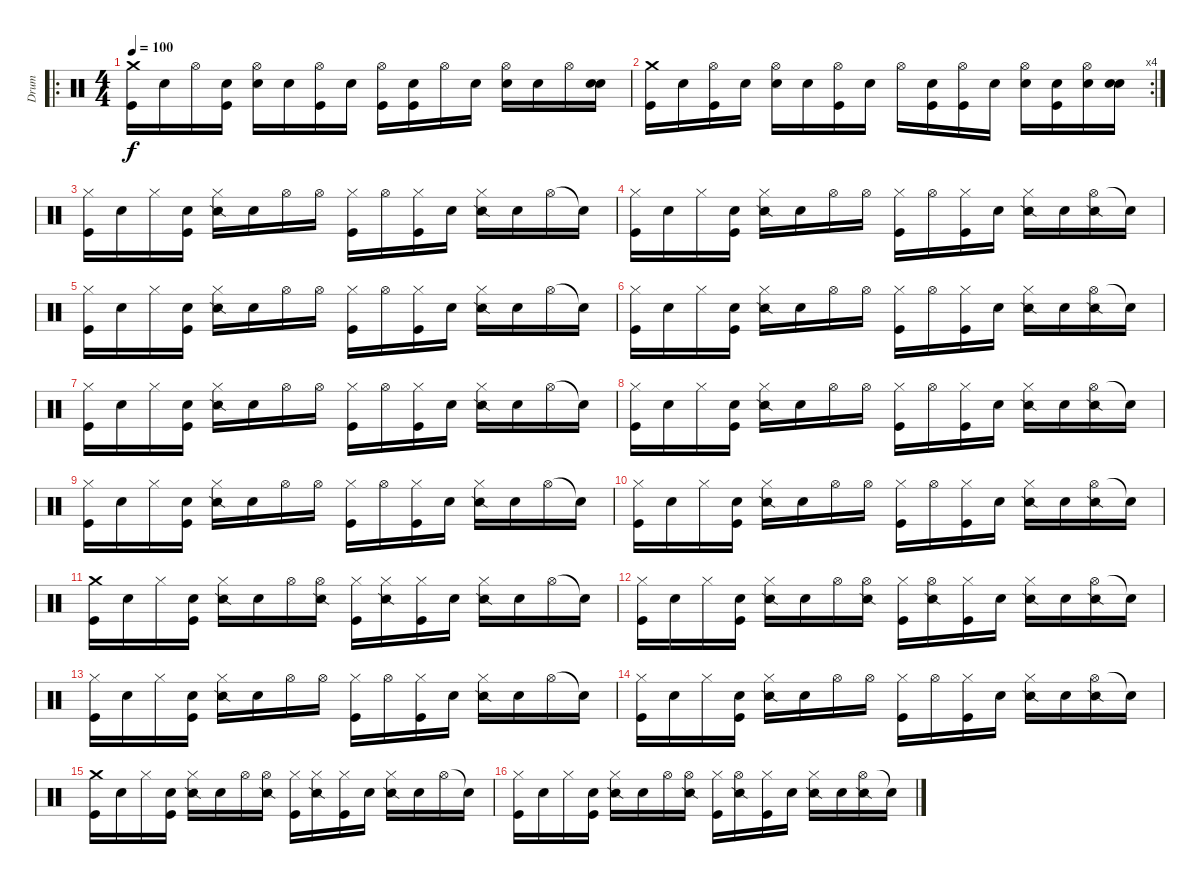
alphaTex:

\track ("Drum" "Drum") {instrument percussion}
\staff {score}
\articulation defaults
\ro
\ts (4 4)
\tempo 100
\clef neutral
\ks c
("Crash medium (hit)" "Kick (hit)").16{dy f} "Snare (hit)".16 "Hi-Hat (open)".16 ("Snare (hit)" "Kick (hit)").16 ("Hi-Hat (open)" "Snare (hit) 2").16 "Snare (hit)".16 ("Hi-Hat (open)" "Kick (hit)").16 "Snare (hit)".16 ("Hi-Hat (open)" "Kick (hit)").16 ("Snare (hit)" "Kick (hit)").16 "Hi-Hat (open)".16 "Snare (hit)".16 ("Hi-Hat (open)" "Snare (hit) 2").16 "Snare (hit)".16 "Hi-Hat (open)".16 ("Snare (hit)" "Snare (hit) 2").16 |
\rc 4
("Crash medium (hit)" "Kick (hit)").16 "Snare (hit)".16 ("Hi-Hat (open)" "Kick (hit)").16 "Snare (hit)".16 ("Hi-Hat (open)" "Snare (hit) 2").16 "Snare (hit)".16 ("Hi-Hat (open)" "Kick (hit)").16 "Snare (hit)".16 "Hi-Hat (open)".16 ("Snare (hit)" "Kick (hit)").16 ("Hi-Hat (open)" "Kick (hit)").16 "Snare (hit)".16 ("Hi-Hat (open)" "Snare (hit) 2").16 ("Snare (hit)" "Kick (hit)").16 ("Hi-Hat (open)" "Snare (hit) 2").16 ("Snare (hit)" "Snare (hit) 2").16 |
("Hi-Hat (closed)" "Kick (hit)").16 "Snare (hit)".16 "Hi-Hat (closed)".16 ("Snare (hit)" "Kick (hit)").16 ("Hi-Hat (closed)" "Snare (side stick) 2").16 "Snare (hit)".16 "Hi-Hat (open)".16 "Hi-Hat (open)".16 ("Hi-Hat (closed)" "Kick (hit)").16 "Hi-Hat (open)".16 ("Hi-Hat (closed)" "Kick (hit)").16 "Snare (hit)".16 ("Hi-Hat (closed)" "Snare (side stick) 2").16 "Snare (hit)".16 "Hi-Hat (open)".16 "Snare (hit)"{t}.16 |
("Hi-Hat (closed)" "Kick (hit)").16 "Snare (hit)".16 "Hi-Hat (closed)".16 ("Snare (hit)" "Kick (hit)").16 ("Hi-Hat (closed)" "Snare (side stick) 2").16 "Snare (hit)".16 "Hi-Hat (open)".16 "Hi-Hat (open)".16 ("Hi-Hat (closed)" "Kick (hit)").16 "Hi-Hat (open)".16 ("Hi-Hat (closed)" "Kick (hit)").16 "Snare (hit)".16 ("Hi-Hat (closed)" "Snare (side stick) 2").16 "Snare (hit)".16 ("Hi-Hat (open)" "Snare (side stick) 2").16 "Snare (hit)"{t}.16 |
("Hi-Hat (closed)" "Kick (hit)").16 "Snare (hit)".16 "Hi-Hat (closed)".16 ("Snare (hit)" "Kick (hit)").16 ("Hi-Hat (closed)" "Snare (side stick) 2").16 "Snare (hit)".16 "Hi-Hat (open)".16 "Hi-Hat (open)".16 ("Hi-Hat (closed)" "Kick (hit)").16 "Hi-Hat (open)".16 ("Hi-Hat (closed)" "Kick (hit)").16 "Snare (hit)".16 ("Hi-Hat (closed)" "Snare (side stick) 2").16 "Snare (hit)".16 "Hi-Hat (open)".16 "Snare (hit)"{t}.16 |
("Hi-Hat (closed)" "Kick (hit)").16 "Snare (hit)".16 "Hi-Hat (closed)".16 ("Snare (hit)" "Kick (hit)").16 ("Hi-Hat (closed)" "Snare (side stick) 2").16 "Snare (hit)".16 "Hi-Hat (open)".16 "Hi-Hat (open)".16 ("Hi-Hat (closed)" "Kick (hit)").16 "Hi-Hat (open)".16 ("Hi-Hat (closed)" "Kick (hit)").16 "Snare (hit)".16 ("Hi-Hat (closed)" "Snare (side stick) 2").16 "Snare (hit)".16 ("Hi-Hat (open)" "Snare (side stick) 2").16 "Snare (hit)"{t}.16 |
("Hi-Hat (closed)" "Kick (hit)").16 "Snare (hit)".16 "Hi-Hat (closed)".16 ("Snare (hit)" "Kick (hit)").16 ("Hi-Hat (closed)" "Snare (side stick) 2").16 "Snare (hit)".16 "Hi-Hat (open)".16 "Hi-Hat (open)".16 ("Hi-Hat (closed)" "Kick (hit)").16 "Hi-Hat (open)".16 ("Hi-Hat (closed)" "Kick (hit)").16 "Snare (hit)".16 ("Hi-Hat (closed)" "Snare (side stick) 2").16 "Snare (hit)".16 "Hi-Hat (open)".16 "Snare (hit)"{t}.16 |
("Hi-Hat (closed)" "Kick (hit)").16 "Snare (hit)".16 "Hi-Hat (closed)".16 ("Snare (hit)" "Kick (hit)").16 ("Hi-Hat (closed)" "Snare (side stick) 2").16 "Snare (hit)".16 "Hi-Hat (open)".16 "Hi-Hat (open)".16 ("Hi-Hat (closed)" "Kick (hit)").16 "Hi-Hat (open)".16 ("Hi-Hat (closed)" "Kick (hit)").16 "Snare (hit)".16 ("Hi-Hat (closed)" "Snare (side stick) 2").16 "Snare (hit)".16 ("Hi-Hat (open)" "Snare (side stick) 2").16 "Snare (hit)"{t}.16 |
("Hi-Hat (closed)" "Kick (hit)").16 "Snare (hit)".16 "Hi-Hat (closed)".16 ("Snare (hit)" "Kick (hit)").16 ("Hi-Hat (closed)" "Snare (side stick) 2").16 "Snare (hit)".16 "Hi-Hat (open)".16 "Hi-Hat (open)".16 ("Hi-Hat (closed)" "Kick (hit)").16 "Hi-Hat (open)".16 ("Hi-Hat (closed)" "Kick (hit)").16 "Snare (hit)".16 ("Hi-Hat (closed)" "Snare (side stick) 2").16 "Snare (hit)".16 "Hi-Hat (open)".16 "Snare (hit)"{t}.16 |
("Hi-Hat (closed)" "Kick (hit)").16 "Snare (hit)".16 "Hi-Hat (closed)".16 ("Snare (hit)" "Kick (hit)").16 ("Hi-Hat (closed)" "Snare (side stick) 2").16 "Snare (hit)".16 "Hi-Hat (open)".16 "Hi-Hat (open)".16 ("Hi-Hat (closed)" "Kick (hit)").16 "Hi-Hat (open)".16 ("Hi-Hat (closed)" "Kick (hit)").16 "Snare (hit)".16 ("Hi-Hat (closed)" "Snare (side stick) 2").16 "Snare (hit)".16 ("Hi-Hat (open)" "Snare (side stick) 2").16 "Snare (hit)"{t}.16 |
("Crash medium (hit)" "Kick (hit)").16 "Snare (hit)".16 "Hi-Hat (closed)".16 ("Snare (hit)" "Kick (hit)").16 ("Hi-Hat (closed)" "Snare (side stick) 2").16 "Snare (hit)".16 "Hi-Hat (open)".16 ("Hi-Hat (open)" "Snare (side stick) 2").16 ("Hi-Hat (closed)" "Kick (hit)").16 ("Hi-Hat (closed)" "Snare (side stick) 2").16 ("Hi-Hat (closed)" "Kick (hit)").16 "Snare (hit)".16 ("Hi-Hat (closed)" "Snare (side stick) 2").16 "Snare (hit)".16 "Hi-Hat (open)".16 "Snare (hit)"{t}.16 |
("Hi-Hat (closed)" "Kick (hit)").16 "Snare (hit)".16 "Hi-Hat (closed)".16 ("Snare (hit)" "Kick (hit)").16 ("Hi-Hat (closed)" "Snare (side stick) 2").16 "Snare (hit)".16 "Hi-Hat (open)".16 ("Hi-Hat (open)" "Snare (side stick) 2").16 ("Hi-Hat (closed)" "Kick (hit)").16 ("Hi-Hat (open)" "Snare (side stick) 2").16 ("Hi-Hat (closed)" "Kick (hit)").16 "Snare (hit)".16 ("Hi-Hat (closed)" "Snare (side stick) 2").16 "Snare (hit)".16 ("Hi-Hat (open)" "Snare (side stick) 2").16 "Snare (hit)"{t}.16 |
("Hi-Hat (closed)" "Kick (hit)").16 "Snare (hit)".16 "Hi-Hat (closed)".16 ("Snare (hit)" "Kick (hit)").16 ("Hi-Hat (closed)" "Snare (side stick) 2").16 "Snare (hit)".16 "Hi-Hat (open)".16 "Hi-Hat (open)".16 ("Hi-Hat (closed)" "Kick (hit)").16 "Hi-Hat (open)".16 ("Hi-Hat (closed)" "Kick (hit)").16 "Snare (hit)".16 ("Hi-Hat (closed)" "Snare (side stick) 2").16 "Snare (hit)".16 "Hi-Hat (open)".16 "Snare (hit)"{t}.16 |
("Hi-Hat (closed)" "Kick (hit)").16 "Snare (hit)".16 "Hi-Hat (closed)".16 ("Snare (hit)" "Kick (hit)").16 ("Hi-Hat (closed)" "Snare (side stick) 2").16 "Snare (hit)".16 "Hi-Hat (open)".16 "Hi-Hat (open)".16 ("Hi-Hat (closed)" "Kick (hit)").16 "Hi-Hat (open)".16 ("Hi-Hat (closed)" "Kick (hit)").16 "Snare (hit)".16 ("Hi-Hat (closed)" "Snare (side stick) 2").16 "Snare (hit)".16 ("Hi-Hat (open)" "Snare (side stick) 2").16 "Snare (hit)"{t}.16 |
("Crash medium (hit)" "Kick (hit)").16 "Snare (hit)".16 "Hi-Hat (closed)".16 ("Snare (hit)" "Kick (hit)").16 ("Hi-Hat (closed)" "Snare (side stick) 2").16 "Snare (hit)".16 "Hi-Hat (open)".16 ("Hi-Hat (open)" "Snare (side stick) 2").16 ("Hi-Hat (closed)" "Kick (hit)").16 ("Hi-Hat (closed)" "Snare (side stick) 2").16 ("Hi-Hat (closed)" "Kick (hit)").16 "Snare (hit)".16 ("Hi-Hat (closed)" "Snare (side stick) 2").16 "Snare (hit)".16 "Hi-Hat (open)".16 "Snare (hit)"{t}.16 |
("Hi-Hat (closed)" "Kick (hit)").16 "Snare (hit)".16 "Hi-Hat (closed)".16 ("Snare (hit)" "Kick (hit)").16 ("Hi-Hat (closed)" "Snare (side stick) 2").16 "Snare (hit)".16 "Hi-Hat (open)".16 ("Hi-Hat (open)" "Snare (side stick) 2").16 ("Hi-Hat (closed)" "Kick (hit)").16 ("Hi-Hat (open)" "Snare (side stick) 2").16 ("Hi-Hat (closed)" "Kick (hit)").16 "Snare (hit)".16 ("Hi-Hat (closed)" "Snare (side stick) 2").16 "Snare (hit)".16 ("Hi-Hat (open)" "Snare (side stick) 2").16 "Snare (hit)"{t}.16
